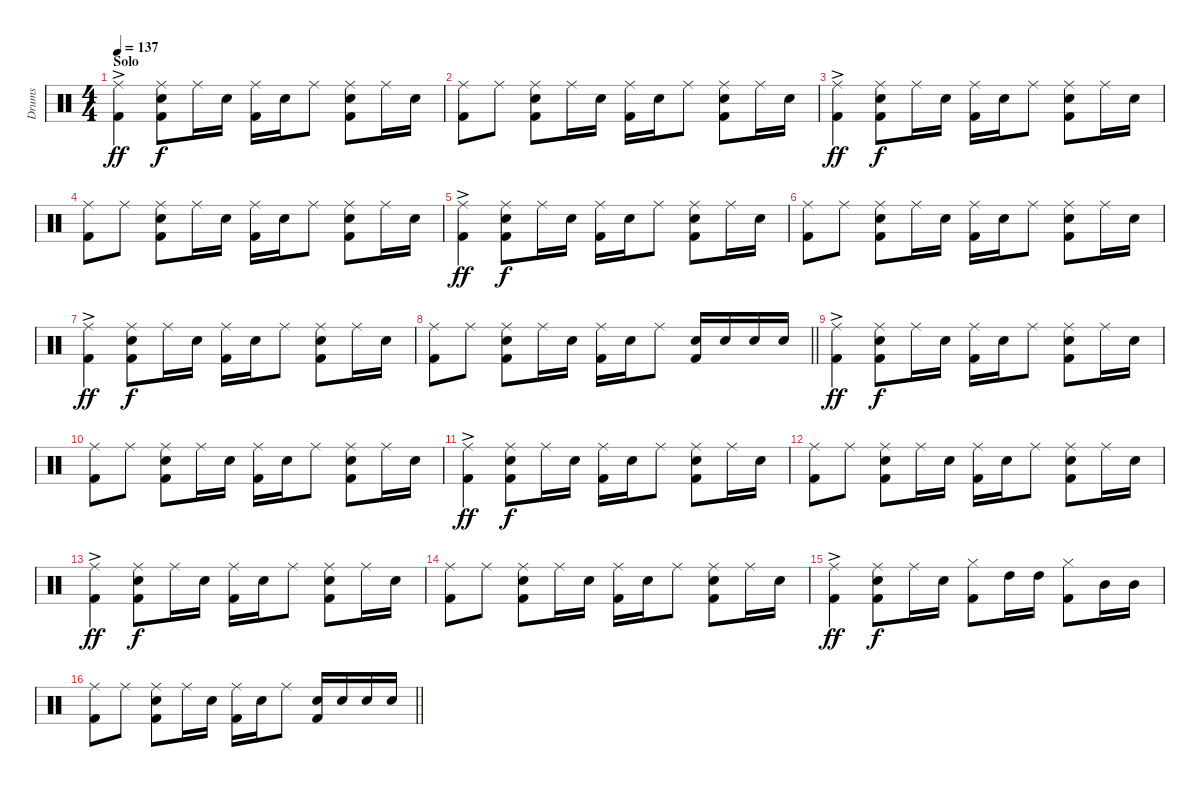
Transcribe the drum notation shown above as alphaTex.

\track ("Drums" "Drums") {instrument percussion}
\staff {score}
\articulation defaults
\ts (4 4)
\section ("" "Solo")
\tempo 137
\clef neutral
\ks c
("Ride (middle)"{ac} "Kick (hit) 2").4{dy ff} ("Ride (middle)" "Electric Snare (hit)" "Kick (hit) 2").8{dy f} "Ride (middle)".16 "Electric Snare (hit)".16 ("Ride (middle)" "Kick (hit) 2").16 "Electric Snare (hit)".16 "Ride (middle)".8 ("Ride (middle)" "Electric Snare (hit)" "Kick (hit) 2").8 "Ride (middle)".16 "Electric Snare (hit)".16 |
("Ride (middle)" "Kick (hit) 2").8 "Ride (middle)".8 ("Ride (middle)" "Electric Snare (hit)" "Kick (hit) 2").8 "Ride (middle)".16 "Electric Snare (hit)".16 ("Ride (middle)" "Kick (hit) 2").16 "Electric Snare (hit)".16 "Ride (middle)".8 ("Ride (middle)" "Electric Snare (hit)" "Kick (hit) 2").8 "Ride (middle)".16 "Electric Snare (hit)".16 |
("Ride (middle)"{ac} "Kick (hit) 2").4{dy ff} ("Ride (middle)" "Electric Snare (hit)" "Kick (hit) 2").8{dy f} "Ride (middle)".16 "Electric Snare (hit)".16 ("Ride (middle)" "Kick (hit) 2").16 "Electric Snare (hit)".16 "Ride (middle)".8 ("Ride (middle)" "Electric Snare (hit)" "Kick (hit) 2").8 "Ride (middle)".16 "Electric Snare (hit)".16 |
("Ride (middle)" "Kick (hit) 2").8 "Ride (middle)".8 ("Ride (middle)" "Electric Snare (hit)" "Kick (hit) 2").8 "Ride (middle)".16 "Electric Snare (hit)".16 ("Ride (middle)" "Kick (hit) 2").16 "Electric Snare (hit)".16 "Ride (middle)".8 ("Ride (middle)" "Electric Snare (hit)" "Kick (hit) 2").8 "Ride (middle)".16 "Electric Snare (hit)".16 |
("Ride (middle)"{ac} "Kick (hit) 2").4{dy ff} ("Ride (middle)" "Electric Snare (hit)" "Kick (hit) 2").8{dy f} "Ride (middle)".16 "Electric Snare (hit)".16 ("Ride (middle)" "Kick (hit) 2").16 "Electric Snare (hit)".16 "Ride (middle)".8 ("Ride (middle)" "Electric Snare (hit)" "Kick (hit) 2").8 "Ride (middle)".16 "Electric Snare (hit)".16 |
("Ride (middle)" "Kick (hit) 2").8 "Ride (middle)".8 ("Ride (middle)" "Electric Snare (hit)" "Kick (hit) 2").8 "Ride (middle)".16 "Electric Snare (hit)".16 ("Ride (middle)" "Kick (hit) 2").16 "Electric Snare (hit)".16 "Ride (middle)".8 ("Ride (middle)" "Electric Snare (hit)" "Kick (hit) 2").8 "Ride (middle)".16 "Electric Snare (hit)".16 |
("Ride (middle)"{ac} "Kick (hit) 2").4{dy ff} ("Ride (middle)" "Electric Snare (hit)" "Kick (hit) 2").8{dy f} "Ride (middle)".16 "Electric Snare (hit)".16 ("Ride (middle)" "Kick (hit) 2").16 "Electric Snare (hit)".16 "Ride (middle)".8 ("Ride (middle)" "Electric Snare (hit)" "Kick (hit) 2").8 "Ride (middle)".16 "Electric Snare (hit)".16 |
\barLineRight lightlight
("Ride (middle)" "Kick (hit) 2").8 "Ride (middle)".8 ("Ride (middle)" "Electric Snare (hit)" "Kick (hit) 2").8 "Ride (middle)".16 "Electric Snare (hit)".16 ("Ride (middle)" "Kick (hit) 2").16 "Electric Snare (hit)".16 "Ride (middle)".8 ("Electric Snare (hit)" "Kick (hit) 2").16 "Electric Snare (hit)".16 "Electric Snare (hit)".16 "Electric Snare (hit)".16 |
\section ("" "")
("Ride (middle)"{ac} "Kick (hit) 2").4{dy ff} ("Ride (middle)" "Electric Snare (hit)" "Kick (hit) 2").8{dy f} "Ride (middle)".16 "Electric Snare (hit)".16 ("Ride (middle)" "Kick (hit) 2").16 "Electric Snare (hit)".16 "Ride (middle)".8 ("Ride (middle)" "Electric Snare (hit)" "Kick (hit) 2").8 "Ride (middle)".16 "Electric Snare (hit)".16 |
("Ride (middle)" "Kick (hit) 2").8 "Ride (middle)".8 ("Ride (middle)" "Electric Snare (hit)" "Kick (hit) 2").8 "Ride (middle)".16 "Electric Snare (hit)".16 ("Ride (middle)" "Kick (hit) 2").16 "Electric Snare (hit)".16 "Ride (middle)".8 ("Ride (middle)" "Electric Snare (hit)" "Kick (hit) 2").8 "Ride (middle)".16 "Electric Snare (hit)".16 |
("Ride (middle)"{ac} "Kick (hit) 2").4{dy ff} ("Ride (middle)" "Electric Snare (hit)" "Kick (hit) 2").8{dy f} "Ride (middle)".16 "Electric Snare (hit)".16 ("Ride (middle)" "Kick (hit) 2").16 "Electric Snare (hit)".16 "Ride (middle)".8 ("Ride (middle)" "Electric Snare (hit)" "Kick (hit) 2").8 "Ride (middle)".16 "Electric Snare (hit)".16 |
("Ride (middle)" "Kick (hit) 2").8 "Ride (middle)".8 ("Ride (middle)" "Electric Snare (hit)" "Kick (hit) 2").8 "Ride (middle)".16 "Electric Snare (hit)".16 ("Ride (middle)" "Kick (hit) 2").16 "Electric Snare (hit)".16 "Ride (middle)".8 ("Ride (middle)" "Electric Snare (hit)" "Kick (hit) 2").8 "Ride (middle)".16 "Electric Snare (hit)".16 |
("Ride (middle)"{ac} "Kick (hit) 2").4{dy ff} ("Ride (middle)" "Electric Snare (hit)" "Kick (hit) 2").8{dy f} "Ride (middle)".16 "Electric Snare (hit)".16 ("Ride (middle)" "Kick (hit) 2").16 "Electric Snare (hit)".16 "Ride (middle)".8 ("Ride (middle)" "Electric Snare (hit)" "Kick (hit) 2").8 "Ride (middle)".16 "Electric Snare (hit)".16 |
("Ride (middle)" "Kick (hit) 2").8 "Ride (middle)".8 ("Ride (middle)" "Electric Snare (hit)" "Kick (hit) 2").8 "Ride (middle)".16 "Electric Snare (hit)".16 ("Ride (middle)" "Kick (hit) 2").16 "Electric Snare (hit)".16 "Ride (middle)".8 ("Ride (middle)" "Electric Snare (hit)" "Kick (hit) 2").8 "Ride (middle)".16 "Electric Snare (hit)".16 |
("Ride (middle)"{ac} "Kick (hit) 2").4{dy ff} ("Ride (middle)" "Electric Snare (hit)" "Kick (hit) 2").8{dy f} "Ride (middle)".16 "Electric Snare (hit)".16 ("Hi-Hat (closed)" "Kick (hit) 2").8 "High Tom (hit)".16 "High Tom (hit)".16 ("Hi-Hat (closed)" "Kick (hit) 2").8 "Mid Tom (hit)".16 "Mid Tom (hit)".16 |
\barLineRight lightlight
("Ride (middle)" "Kick (hit) 2").8 "Ride (middle)".8 ("Ride (middle)" "Electric Snare (hit)" "Kick (hit) 2").8 "Ride (middle)".16 "Electric Snare (hit)".16 ("Ride (middle)" "Kick (hit) 2").16 "Electric Snare (hit)".16 "Ride (middle)".8 ("Electric Snare (hit)" "Kick (hit) 2").16 "Electric Snare (hit)".16 "Electric Snare (hit)".16 "Electric Snare (hit)".16
